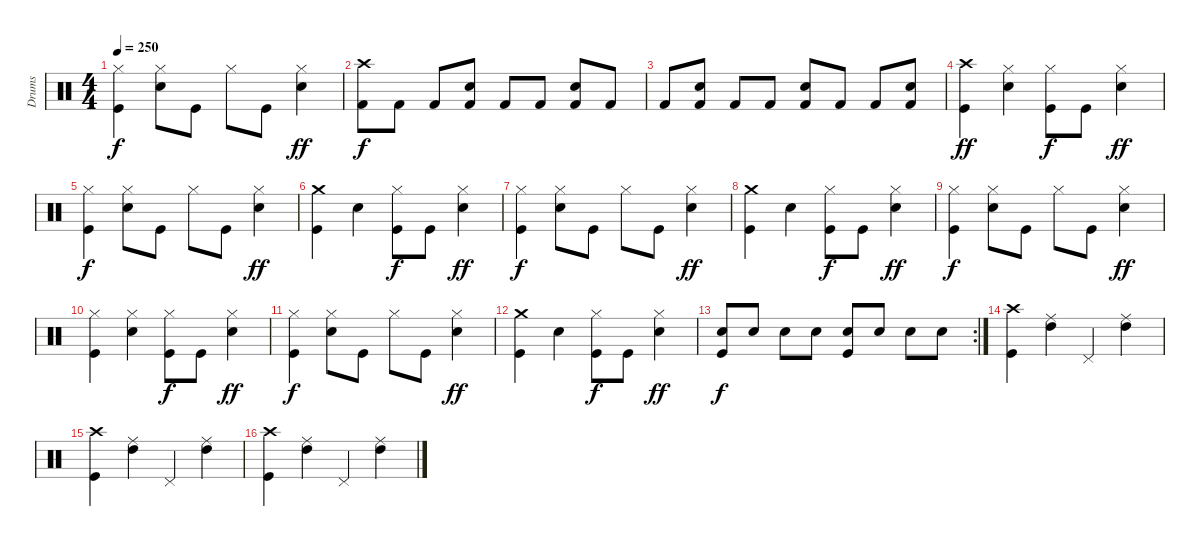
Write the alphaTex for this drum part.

\track ("Drums" "Drums") {instrument percussion}
\staff {score}
\articulation defaults
\ts (4 4)
\tempo 250
\clef neutral
\ks c
("Hi-Hat (closed)" "Kick (hit)").4{dy f} ("Hi-Hat (closed)" "Snare (hit) 2").8 "Kick (hit)".8 "Hi-Hat (closed)".8 "Kick (hit)".8 ("Hi-Hat (closed)" "Snare (hit) 2").4{dy ff} |
("Kick (hit) 2" "Crash high (hit)").8{dy f} "Kick (hit) 2".8 "Kick (hit) 2".8 ("Kick (hit) 2" "Electric Snare (hit)").8 "Kick (hit) 2".8 "Kick (hit) 2".8 ("Kick (hit) 2" "Electric Snare (hit)").8 "Kick (hit) 2".8 |
"Kick (hit) 2".8 ("Kick (hit) 2" "Electric Snare (hit)").8 "Kick (hit) 2".8 "Kick (hit) 2".8 ("Kick (hit) 2" "Electric Snare (hit)").8 "Kick (hit) 2".8 "Kick (hit) 2".8 ("Kick (hit) 2" "Electric Snare (hit)").8 |
("Crash high (hit)" "Kick (hit)").4{dy ff} ("Hi-Hat (closed)" "Snare (hit) 2").4 ("Hi-Hat (closed)" "Kick (hit)").8{dy f} "Kick (hit)".8 ("Hi-Hat (closed)" "Snare (hit) 2").4{dy ff} |
("Hi-Hat (closed)" "Kick (hit)").4{dy f} ("Hi-Hat (closed)" "Snare (hit) 2").8 "Kick (hit)".8 "Hi-Hat (closed)".8 "Kick (hit)".8 ("Hi-Hat (closed)" "Snare (hit) 2").4{dy ff} |
("Crash medium (hit)" "Kick (hit)").4 "Snare (hit) 2".4 ("Hi-Hat (closed)" "Kick (hit)").8{dy f} "Kick (hit)".8 ("Hi-Hat (closed)" "Snare (hit) 2").4{dy ff} |
("Hi-Hat (closed)" "Kick (hit)").4{dy f} ("Hi-Hat (closed)" "Snare (hit) 2").8 "Kick (hit)".8 "Hi-Hat (closed)".8 "Kick (hit)".8 ("Hi-Hat (closed)" "Snare (hit) 2").4{dy ff} |
("Crash medium (hit)" "Kick (hit)").4 "Snare (hit) 2".4 ("Hi-Hat (closed)" "Kick (hit)").8{dy f} "Kick (hit)".8 ("Hi-Hat (closed)" "Snare (hit) 2").4{dy ff} |
("Hi-Hat (closed)" "Kick (hit)").4{dy f} ("Hi-Hat (closed)" "Snare (hit) 2").8 "Kick (hit)".8 "Hi-Hat (closed)".8 "Kick (hit)".8 ("Hi-Hat (closed)" "Snare (hit) 2").4{dy ff} |
("Hi-Hat (closed)" "Kick (hit)").4 ("Hi-Hat (closed)" "Snare (hit) 2").4 ("Hi-Hat (closed)" "Kick (hit)").8{dy f} "Kick (hit)".8 ("Hi-Hat (closed)" "Snare (hit) 2").4{dy ff} |
("Hi-Hat (closed)" "Kick (hit)").4{dy f} ("Hi-Hat (closed)" "Snare (hit) 2").8 "Kick (hit)".8 "Hi-Hat (closed)".8 "Kick (hit)".8 ("Hi-Hat (closed)" "Snare (hit) 2").4{dy ff} |
("Crash medium (hit)" "Kick (hit)").4 "Snare (hit) 2".4 ("Hi-Hat (closed)" "Kick (hit)").8{dy f} "Kick (hit)".8 ("Hi-Hat (closed)" "Snare (hit) 2").4{dy ff} |
\rc 2
("Snare (hit) 2" "Kick (hit)").8{dy f} "Snare (hit) 2".8 "Snare (hit) 2".8 "Snare (hit) 2".8 ("Kick (hit)" "Snare (hit) 2").8 "Snare (hit) 2".8 "Snare (hit) 2".8 "Snare (hit) 2".8 |
("Crash high (hit)" "Kick (hit)").4 ("Ride (middle)" "High Tom (hit)").4 "Pedal Hi-Hat (hit)".4 ("Ride (middle)" "High Tom (hit)").4 |
("Crash high (hit)" "Kick (hit)").4 ("Ride (middle)" "High Tom (hit)").4 "Pedal Hi-Hat (hit)".4 ("Ride (middle)" "High Tom (hit)").4 |
("Crash high (hit)" "Kick (hit)").4 ("Ride (middle)" "High Tom (hit)").4 "Pedal Hi-Hat (hit)".4 ("Ride (middle)" "High Tom (hit)").4
